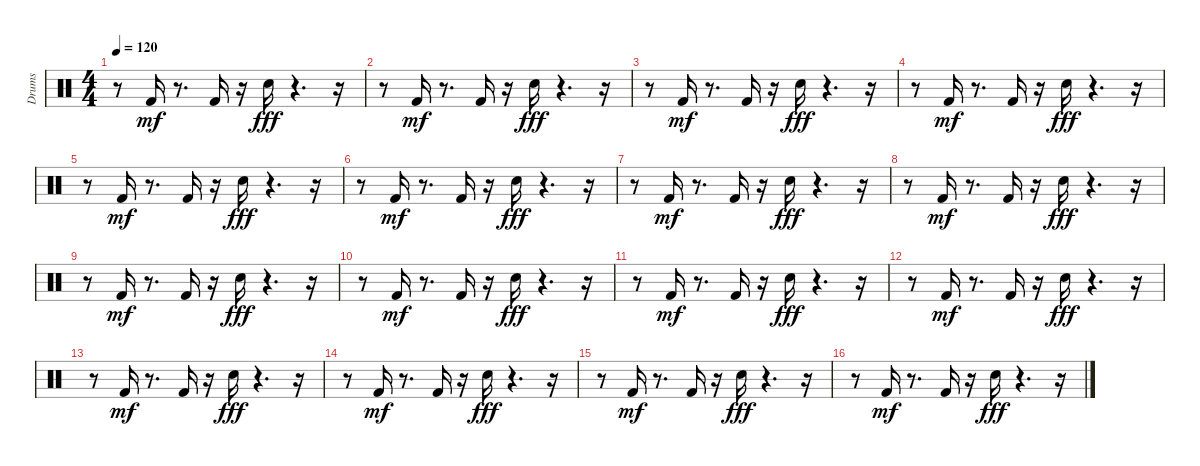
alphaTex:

\track ("Drums" "Drums") {instrument percussion}
\staff {score}
\articulation defaults
\ts (4 4)
\tempo 120
\clef neutral
\ks c
r.8{dy fff} "Kick (hit) 2".16{dy mf} r.8{d} "Kick (hit) 2".16 r.16 "Snare (hit) 2".16{dy fff} r.4{d} r.16 |
r.8 "Kick (hit) 2".16{dy mf} r.8{d} "Kick (hit) 2".16 r.16 "Snare (hit) 2".16{dy fff} r.4{d} r.16 |
r.8 "Kick (hit) 2".16{dy mf} r.8{d} "Kick (hit) 2".16 r.16 "Snare (hit) 2".16{dy fff} r.4{d} r.16 |
r.8 "Kick (hit) 2".16{dy mf} r.8{d} "Kick (hit) 2".16 r.16 "Snare (hit) 2".16{dy fff} r.4{d} r.16 |
r.8 "Kick (hit) 2".16{dy mf} r.8{d} "Kick (hit) 2".16 r.16 "Snare (hit) 2".16{dy fff} r.4{d} r.16 |
r.8 "Kick (hit) 2".16{dy mf} r.8{d} "Kick (hit) 2".16 r.16 "Snare (hit) 2".16{dy fff} r.4{d} r.16 |
r.8 "Kick (hit) 2".16{dy mf} r.8{d} "Kick (hit) 2".16 r.16 "Snare (hit) 2".16{dy fff} r.4{d} r.16 |
r.8 "Kick (hit) 2".16{dy mf} r.8{d} "Kick (hit) 2".16 r.16 "Snare (hit) 2".16{dy fff} r.4{d} r.16 |
r.8 "Kick (hit) 2".16{dy mf} r.8{d} "Kick (hit) 2".16 r.16 "Snare (hit) 2".16{dy fff} r.4{d} r.16 |
r.8 "Kick (hit) 2".16{dy mf} r.8{d} "Kick (hit) 2".16 r.16 "Snare (hit) 2".16{dy fff} r.4{d} r.16 |
r.8 "Kick (hit) 2".16{dy mf} r.8{d} "Kick (hit) 2".16 r.16 "Snare (hit) 2".16{dy fff} r.4{d} r.16 |
r.8 "Kick (hit) 2".16{dy mf} r.8{d} "Kick (hit) 2".16 r.16 "Snare (hit) 2".16{dy fff} r.4{d} r.16 |
r.8 "Kick (hit) 2".16{dy mf} r.8{d} "Kick (hit) 2".16 r.16 "Snare (hit) 2".16{dy fff} r.4{d} r.16 |
r.8 "Kick (hit) 2".16{dy mf} r.8{d} "Kick (hit) 2".16 r.16 "Snare (hit) 2".16{dy fff} r.4{d} r.16 |
r.8 "Kick (hit) 2".16{dy mf} r.8{d} "Kick (hit) 2".16 r.16 "Snare (hit) 2".16{dy fff} r.4{d} r.16 |
r.8 "Kick (hit) 2".16{dy mf} r.8{d} "Kick (hit) 2".16 r.16 "Snare (hit) 2".16{dy fff} r.4{d} r.16
